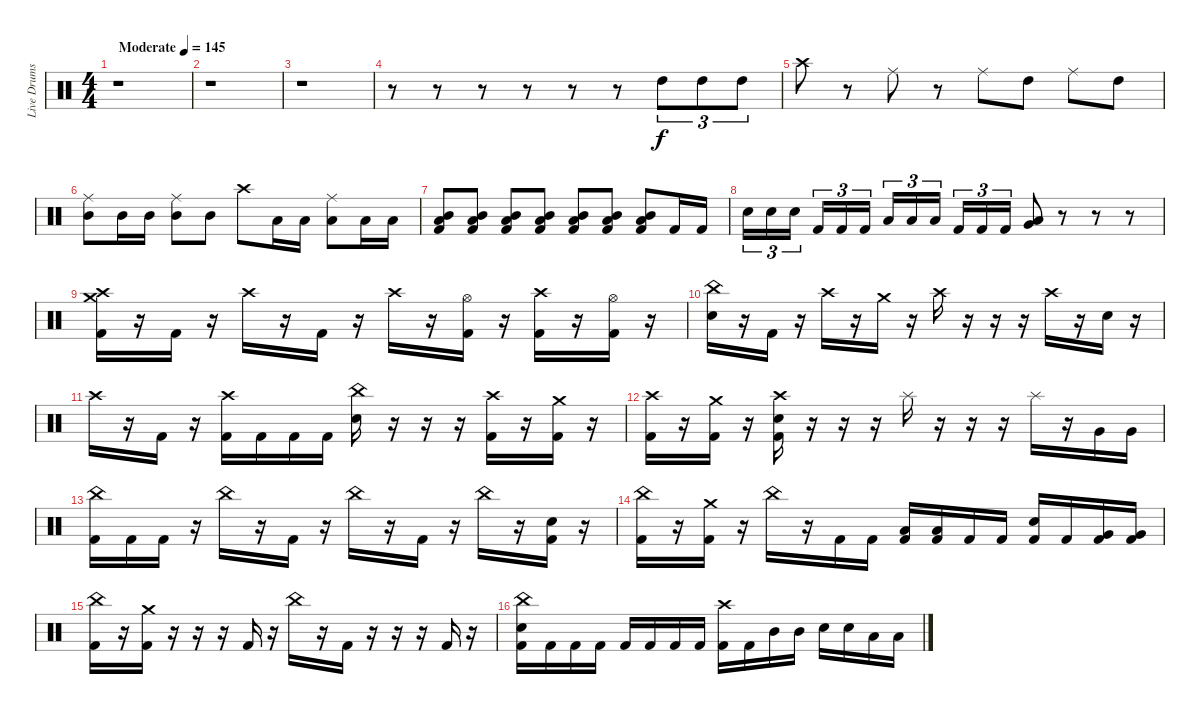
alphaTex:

\track ("Live Drums" "Live Drums") {instrument percussion}
\staff {score}
\articulation defaults
\ts (4 4)
\tempo (145 "Moderate")
\clef neutral
\ks c
r.1{dy f} |
r.1 |
r.1 |
r.8 r.8 r.8 r.8 r.8 r.8 "High Tom (hit)".8{tu (3 2)} "High Tom (hit)".8{tu (3 2)} "High Tom (hit)".8{tu (3 2)} |
"Crash high (hit)".8 r.8 "Ride (middle)".8 r.8 "Ride (middle)".8 "High Tom (hit)".8 "Ride (middle)".8 "High Tom (hit)".8 |
("Ride (middle)" "Mid Tom (hit)").8 "Mid Tom (hit)".16 "Mid Tom (hit)".16 ("Ride (middle)" "Mid Tom (hit)").8 "Mid Tom (hit)".8 "Crash high (hit)".8 "Low Tom (hit)".16 "Low Tom (hit)".16 ("Ride (middle)" "Low Tom (hit)").8 "Low Tom (hit)".16 "Low Tom (hit)".16 |
("Mid Tom (hit)" "Low Tom (hit)" "Kick (hit) 2").8 ("Mid Tom (hit)" "Low Tom (hit)" "Kick (hit) 2").8 ("Mid Tom (hit)" "Low Tom (hit)" "Kick (hit) 2").8 ("Mid Tom (hit)" "Low Tom (hit)" "Kick (hit) 2").8 ("Mid Tom (hit)" "Low Tom (hit)" "Kick (hit) 2").8 ("Mid Tom (hit)" "Low Tom (hit)" "Kick (hit) 2").8 ("Mid Tom (hit)" "Low Tom (hit)" "Kick (hit) 2").8 "Kick (hit) 2".16 "Kick (hit) 2".16 |
"Snare (hit) 2".16{tu (3 2)} "Snare (hit) 2".16{tu (3 2)} "Snare (hit) 2".16{tu (3 2) beam splitsecondary} "Kick (hit) 2".16{tu (3 2)} "Kick (hit) 2".16{tu (3 2)} "Kick (hit) 2".16{tu (3 2)} "Low Tom (hit)".16{tu (3 2)} "Low Tom (hit)".16{tu (3 2)} "Low Tom (hit)".16{tu (3 2) beam splitsecondary} "Kick (hit) 2".16{tu (3 2)} "Kick (hit) 2".16{tu (3 2)} "Kick (hit) 2".16{tu (3 2)} ("Low Tom (hit)" "Very Low Tom (hit)").8 r.8 r.8 r.8 |
("Crash medium (hit)" "Crash high (hit)" "Kick (hit) 2").16 r.16 "Kick (hit) 2".16 r.16 "Crash high (hit)".16 r.16 "Kick (hit) 2".16 r.16 "Crash high (hit)".16 r.16 ("Hi-Hat (open)" "Kick (hit) 2").16 r.16 ("Crash high (hit)" "Kick (hit) 2").16 r.16 ("Hi-Hat (open)" "Kick (hit) 2").16 r.16 |
("China (hit)" "Snare (hit) 2").16 r.16 "Kick (hit) 2".16 r.16 "Crash high (hit)".16 r.16 "Crash medium (hit)".16 r.16 "Crash high (hit)".16 r.16 r.16 r.16 "Crash high (hit)".16 r.16 "Snare (hit) 2".16 r.16 |
"Crash high (hit)".16 r.16 "Kick (hit) 2".16 r.16 ("Crash high (hit)" "Kick (hit) 2").16 "Kick (hit) 2".16 "Kick (hit) 2".16 "Kick (hit) 2".16 ("China (hit)" "Snare (hit) 2").16 r.16 r.16 r.16 ("Crash high (hit)" "Kick (hit) 2").16 r.16 ("Crash medium (hit)" "Kick (hit) 2").16 r.16 |
("Crash high (hit)" "Kick (hit) 2").16 r.16 ("Crash medium (hit)" "Kick (hit) 2").16 r.16 ("Crash high (hit)" "Snare (hit) 2" "Kick (hit) 2").16 r.16 r.16 r.16 "Splash (hit)".16 r.16 r.16 r.16 "Splash (hit)".16 r.16 "Very Low Tom (hit)".16 "Very Low Tom (hit)".16 |
("China (hit)" "Kick (hit) 2").16 "Kick (hit) 2".16 "Kick (hit) 2".16 r.16 "China (hit)".16 r.16 "Kick (hit) 2".16 r.16 "China (hit)".16 r.16 "Kick (hit) 2".16 r.16 "China (hit)".16 r.16 ("Snare (hit) 2" "Kick (hit) 2").16 r.16 |
("China (hit)" "Kick (hit) 2").16 r.16 ("Crash medium (hit)" "Kick (hit) 2").16 r.16 "China (hit)".16 r.16 "Kick (hit) 2".16 "Kick (hit) 2".16 ("Low Tom (hit)" "Kick (hit) 2").16 ("Low Tom (hit)" "Kick (hit) 2").16 "Kick (hit) 2".16 "Kick (hit) 2".16 ("Snare (hit) 2" "Kick (hit) 2").16 "Kick (hit) 2".16 ("Very Low Tom (hit)" "Kick (hit) 2").16 ("Very Low Tom (hit)" "Kick (hit) 2").16 |
("China (hit)" "Kick (hit) 2").16 r.16 ("Crash medium (hit)" "Kick (hit) 2").16 r.16 r.16 r.16 "Kick (hit) 2".16 r.16 "China (hit)".16 r.16 "Kick (hit) 2".16 r.16 r.16 r.16 "Kick (hit) 2".16 r.16 |
("China (hit)" "Snare (hit) 2" "Kick (hit) 2").16 "Kick (hit) 2".16 "Kick (hit) 2".16 "Kick (hit) 2".16 "Kick (hit) 2".16 "Kick (hit) 2".16 "Kick (hit) 2".16 "Kick (hit) 2".16 ("Crash high (hit)" "Kick (hit) 2").16 "Kick (hit) 2".16 "Mid Tom (hit)".16 "Mid Tom (hit)".16 "Snare (hit) 2".16 "Snare (hit) 2".16 "Low Tom (hit)".16 "Low Tom (hit)".16
